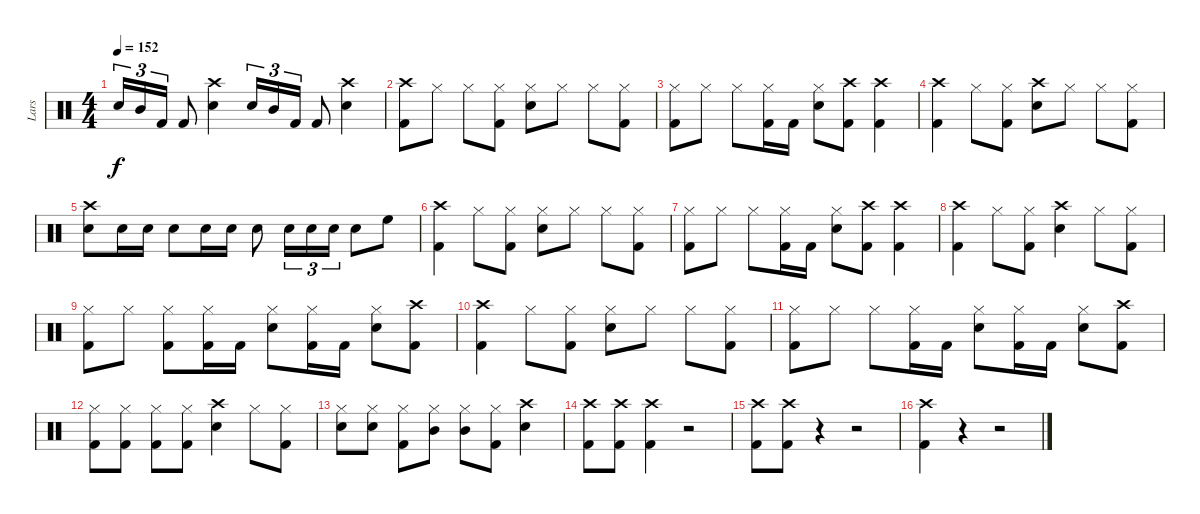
\track ("Lars" "Lars") {instrument percussion}
\staff {score}
\articulation defaults
\ts (4 4)
\tempo 152
\clef neutral
\ks c "Snare (hit) 2".16{tu (3 2) dy f} "Mid Tom (hit)".16{tu (3 2)} "Kick (hit) 2".16{tu (3 2)} "Kick (hit) 2".8
("Crash high (hit)" "Snare (hit) 2").4 "Snare (hit) 2".16{tu (3 2)} "Mid Tom (hit)".16{tu (3 2)} "Kick (hit) 2".16{tu (3 2)} "Kick (hit) 2".8 ("Crash high (hit)" "Snare (hit) 2").4 |
("Crash high (hit)" "Kick (hit) 2").8 "Hi-Hat (closed)".8 "Hi-Hat (closed)".8 ("Hi-Hat (closed)" "Kick (hit) 2").8 ("Hi-Hat (closed)" "Snare (hit) 2").8 "Hi-Hat (closed)".8 "Hi-Hat (closed)".8 ("Hi-Hat (closed)" "Kick (hit) 2").8 |
("Hi-Hat (closed)" "Kick (hit) 2").8 "Hi-Hat (closed)".8 "Hi-Hat (closed)".8 ("Hi-Hat (closed)" "Kick (hit) 2").16 "Kick (hit) 2".16 ("Hi-Hat (closed)" "Snare (hit) 2").8 ("Crash high (hit)" "Kick (hit) 2").8 ("Crash high (hit)" "Kick (hit) 2").4 |
("Crash high (hit)" "Kick (hit) 2").4 "Hi-Hat (closed)".8 ("Hi-Hat (closed)" "Kick (hit) 2").8 ("Crash high (hit)" "Snare (hit) 2").8 "Hi-Hat (closed)".8 "Hi-Hat (closed)".8 ("Hi-Hat (closed)" "Kick (hit) 2").8 |
("Crash high (hit)" "Snare (hit) 2").8 "Snare (hit) 2".16 "Snare (hit) 2".16 "Snare (hit) 2".8 "Snare (hit) 2".16 "Snare (hit) 2".16 "Snare (hit) 2".8 "Snare (hit) 2".16{tu (3 2)} "Snare (hit) 2".16{tu (3 2)} "Snare (hit) 2".16{tu (3 2)} "Snare (hit) 2".8 "High Floor Tom (hit)".8 |
("Crash high (hit)" "Kick (hit) 2").4 "Hi-Hat (closed)".8 ("Hi-Hat (closed)" "Kick (hit) 2").8 ("Hi-Hat (closed)" "Snare (hit) 2").8 "Hi-Hat (closed)".8 "Hi-Hat (closed)".8 ("Hi-Hat (closed)" "Kick (hit) 2").8 |
("Hi-Hat (closed)" "Kick (hit) 2").8 "Hi-Hat (closed)".8 "Hi-Hat (closed)".8 ("Hi-Hat (closed)" "Kick (hit) 2").16 "Kick (hit) 2".16 ("Hi-Hat (closed)" "Snare (hit) 2").8 ("Crash high (hit)" "Kick (hit) 2").8 ("Crash high (hit)" "Kick (hit) 2").4 |
("Crash high (hit)" "Kick (hit) 2").4 "Hi-Hat (closed)".8 ("Hi-Hat (closed)" "Kick (hit) 2").8 ("Crash high (hit)" "Snare (hit) 2").4 "Hi-Hat (closed)".8 ("Hi-Hat (closed)" "Kick (hit) 2").8 |
("Hi-Hat (closed)" "Kick (hit) 2").8 "Hi-Hat (closed)".8 ("Hi-Hat (closed)" "Kick (hit) 2").8 ("Hi-Hat (closed)" "Kick (hit) 2").16 "Kick (hit) 2".16 ("Hi-Hat (closed)" "Snare (hit) 2").8 ("Hi-Hat (closed)" "Kick (hit) 2").16 "Kick (hit) 2".16 ("Hi-Hat (closed)" "Snare (hit) 2").8 ("Crash high (hit)" "Kick (hit) 2").8 |
("Crash high (hit)" "Kick (hit) 2").4 "Hi-Hat (closed)".8 ("Hi-Hat (closed)" "Kick (hit) 2").8 ("Hi-Hat (closed)" "Snare (hit) 2").8 "Hi-Hat (closed)".8 "Hi-Hat (closed)".8 ("Hi-Hat (closed)" "Kick (hit) 2").8 |
("Hi-Hat (closed)" "Kick (hit) 2").8 "Hi-Hat (closed)".8 "Hi-Hat (closed)".8 ("Hi-Hat (closed)" "Kick (hit) 2").16 "Kick (hit) 2".16 ("Hi-Hat (closed)" "Snare (hit) 2").8 ("Hi-Hat (closed)" "Kick (hit) 2").16 "Kick (hit) 2".16 ("Hi-Hat (closed)" "Snare (hit) 2").8 ("Crash high (hit)" "Kick (hit) 2").8 |
("Hi-Hat (closed)" "Kick (hit) 2").8 ("Hi-Hat (closed)" "Kick (hit) 2").8 ("Hi-Hat (closed)" "Kick (hit) 2").8 ("Hi-Hat (closed)" "Kick (hit) 2").8 ("Crash high (hit)" "Snare (hit) 2").4 "Hi-Hat (closed)".8 ("Hi-Hat (closed)" "Kick (hit) 2").8 |
("Hi-Hat (closed)" "Snare (hit) 2").8 ("Hi-Hat (closed)" "Snare (hit) 2").8 ("Hi-Hat (closed)" "Kick (hit) 2").8 ("Hi-Hat (closed)" "Mid Tom (hit)").8 ("Hi-Hat (closed)" "Mid Tom (hit)").8 ("Hi-Hat (closed)" "Kick (hit) 2").8 ("Crash high (hit)" "Snare (hit) 2").4 |
("Crash high (hit)" "Kick (hit) 2").8 ("Crash high (hit)" "Kick (hit) 2").8 ("Crash high (hit)" "Kick (hit) 2").4 r.2 |
("Crash high (hit)" "Kick (hit) 2").8 ("Crash high (hit)" "Kick (hit) 2").8 r.4 r.2 |
("Crash high (hit)" "Kick (hit) 2").4 r.4 r.2
